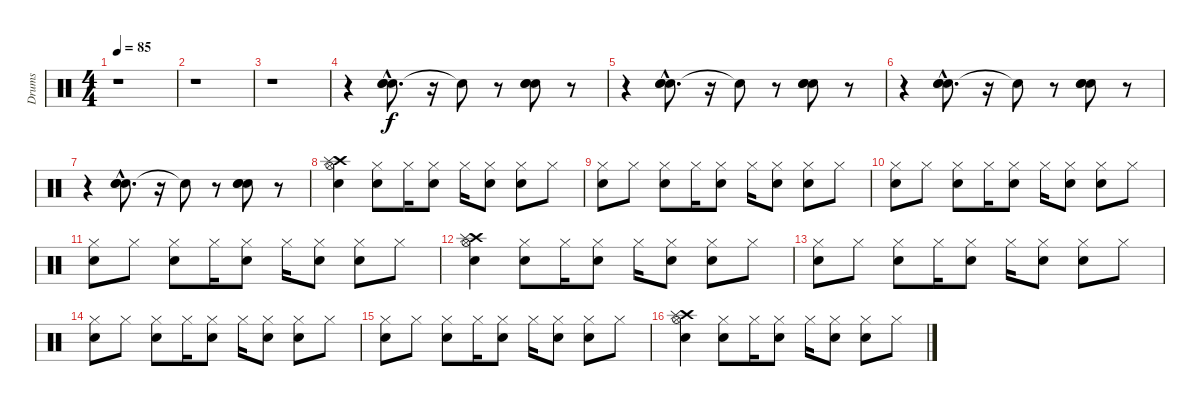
\track ("Drums" "Drums") {instrument percussion}
\staff {score}
\articulation defaults
\ts (4 4)
\tempo 85
\clef neutral
\ks c
r.1{dy f} |
r.1 |
r.1 |
r.4 ("Electric Snare (hit)"{hac} "Snare (hit) 2"{hac} "Snare (hit) 2"{hac}).8{d} r.16 "Snare (hit)"{t}.8 r.8 ("Electric Snare (hit)" "Snare (hit) 2" "Snare (hit) 2").8 r.8 |
r.4 ("Electric Snare (hit)"{hac} "Snare (hit) 2"{hac} "Snare (hit) 2"{hac}).8{d} r.16 "Snare (hit)"{t}.8 r.8 ("Electric Snare (hit)" "Snare (hit) 2" "Snare (hit) 2").8 r.8 |
r.4 ("Electric Snare (hit)"{hac} "Snare (hit) 2"{hac} "Snare (hit) 2"{hac}).8{d} r.16 "Snare (hit)"{t}.8 r.8 ("Electric Snare (hit)" "Snare (hit) 2" "Snare (hit) 2").8 r.8 |
r.4 ("Electric Snare (hit)"{hac} "Snare (hit) 2"{hac} "Snare (hit) 2"{hac}).8{d} r.16 "Snare (hit)"{t}.8 r.8 ("Electric Snare (hit)" "Snare (hit) 2" "Snare (hit) 2").8 r.8 |
("Crash high (hit)" "Splash (hit)" "Snare (hit) 2" "Hi-Hat (open)").4 ("Hi-Hat (closed)" "Snare (hit) 2").8 "Hi-Hat (closed)".16 ("Hi-Hat (closed)" "Snare (hit) 2").8 "Hi-Hat (closed)".16 ("Hi-Hat (closed)" "Snare (hit) 2").8 ("Hi-Hat (closed)" "Snare (hit) 2").8 "Hi-Hat (closed)".8 |
("Hi-Hat (closed)" "Snare (hit) 2").8 "Hi-Hat (closed)".8 ("Hi-Hat (closed)" "Snare (hit) 2").8 "Hi-Hat (closed)".16 ("Hi-Hat (closed)" "Snare (hit) 2").8 "Hi-Hat (closed)".16 ("Hi-Hat (closed)" "Snare (hit) 2").8 ("Hi-Hat (closed)" "Snare (hit) 2").8 "Hi-Hat (closed)".8 |
("Hi-Hat (closed)" "Snare (hit) 2").8 "Hi-Hat (closed)".8 ("Hi-Hat (closed)" "Snare (hit) 2").8 "Hi-Hat (closed)".16 ("Hi-Hat (closed)" "Snare (hit) 2").8 "Hi-Hat (closed)".16 ("Hi-Hat (closed)" "Snare (hit) 2").8 ("Hi-Hat (closed)" "Snare (hit) 2").8 "Hi-Hat (closed)".8 |
("Hi-Hat (closed)" "Snare (hit) 2").8 "Hi-Hat (closed)".8 ("Hi-Hat (closed)" "Snare (hit) 2").8 "Hi-Hat (closed)".16 ("Hi-Hat (closed)" "Snare (hit) 2").8 "Hi-Hat (closed)".16 ("Hi-Hat (closed)" "Snare (hit) 2").8 ("Hi-Hat (closed)" "Snare (hit) 2").8 "Hi-Hat (closed)".8 |
("Crash high (hit)" "Splash (hit)" "Snare (hit) 2" "Hi-Hat (open)").4 ("Hi-Hat (closed)" "Snare (hit) 2").8 "Hi-Hat (closed)".16 ("Hi-Hat (closed)" "Snare (hit) 2").8 "Hi-Hat (closed)".16 ("Hi-Hat (closed)" "Snare (hit) 2").8 ("Hi-Hat (closed)" "Snare (hit) 2").8 "Hi-Hat (closed)".8 |
("Hi-Hat (closed)" "Snare (hit) 2").8 "Hi-Hat (closed)".8 ("Hi-Hat (closed)" "Snare (hit) 2").8 "Hi-Hat (closed)".16 ("Hi-Hat (closed)" "Snare (hit) 2").8 "Hi-Hat (closed)".16 ("Hi-Hat (closed)" "Snare (hit) 2").8 ("Hi-Hat (closed)" "Snare (hit) 2").8 "Hi-Hat (closed)".8 |
("Hi-Hat (closed)" "Snare (hit) 2").8 "Hi-Hat (closed)".8 ("Hi-Hat (closed)" "Snare (hit) 2").8 "Hi-Hat (closed)".16 ("Hi-Hat (closed)" "Snare (hit) 2").8 "Hi-Hat (closed)".16 ("Hi-Hat (closed)" "Snare (hit) 2").8 ("Hi-Hat (closed)" "Snare (hit) 2").8 "Hi-Hat (closed)".8 |
("Hi-Hat (closed)" "Snare (hit) 2").8 "Hi-Hat (closed)".8 ("Hi-Hat (closed)" "Snare (hit) 2").8 "Hi-Hat (closed)".16 ("Hi-Hat (closed)" "Snare (hit) 2").8 "Hi-Hat (closed)".16 ("Hi-Hat (closed)" "Snare (hit) 2").8 ("Hi-Hat (closed)" "Snare (hit) 2").8 "Hi-Hat (closed)".8 |
("Crash high (hit)" "Splash (hit)" "Snare (hit) 2" "Hi-Hat (open)").4 ("Hi-Hat (closed)" "Snare (hit) 2").8 "Hi-Hat (closed)".16 ("Hi-Hat (closed)" "Snare (hit) 2").8 "Hi-Hat (closed)".16 ("Hi-Hat (closed)" "Snare (hit) 2").8 ("Hi-Hat (closed)" "Snare (hit) 2").8 "Hi-Hat (closed)".8
